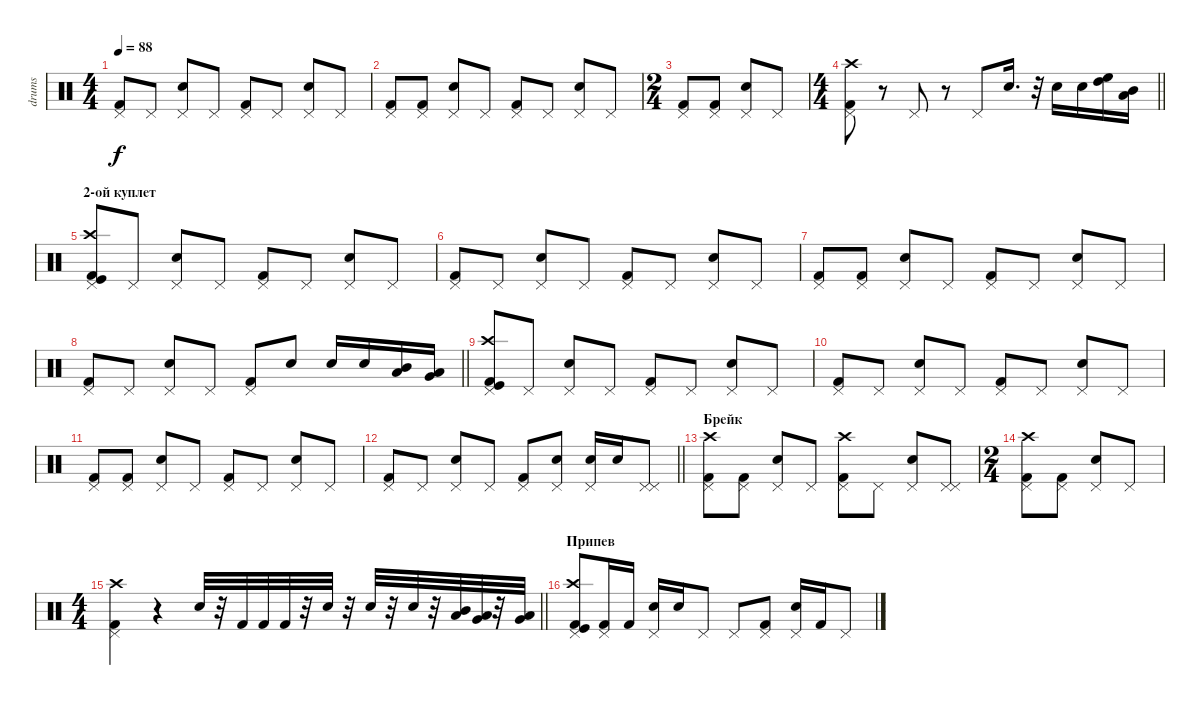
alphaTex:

\track ("drums" "drums") {instrument percussion}
\staff {score}
\articulation defaults
\ts (4 4)
\tempo 88
\clef neutral
\ks c
("Pedal Hi-Hat (hit)" "Kick (hit) 2").8{dy f} "Pedal Hi-Hat (hit)".8 ("Snare (hit) 2" "Pedal Hi-Hat (hit)").8 "Pedal Hi-Hat (hit)".8 ("Pedal Hi-Hat (hit)" "Kick (hit) 2").8 "Pedal Hi-Hat (hit)".8 ("Pedal Hi-Hat (hit)" "Snare (hit) 2").8 "Pedal Hi-Hat (hit)".8 |
("Pedal Hi-Hat (hit)" "Kick (hit) 2").8 ("Kick (hit) 2" "Pedal Hi-Hat (hit)").8 ("Pedal Hi-Hat (hit)" "Snare (hit) 2").8 "Pedal Hi-Hat (hit)".8 ("Kick (hit) 2" "Pedal Hi-Hat (hit)").8 "Pedal Hi-Hat (hit)".8 ("Pedal Hi-Hat (hit)" "Snare (hit) 2").8 "Pedal Hi-Hat (hit)".8 |
\ts (2 4)
("Pedal Hi-Hat (hit)" "Kick (hit) 2").8 ("Kick (hit) 2" "Pedal Hi-Hat (hit)").8 ("Pedal Hi-Hat (hit)" "Snare (hit) 2").8 "Pedal Hi-Hat (hit)".8 |
\ts (4 4)
\barLineRight lightlight
("Pedal Hi-Hat (hit)" "Kick (hit) 2" "Crash high (hit)").8 r.8 "Pedal Hi-Hat (hit)".8 r.8 "Pedal Hi-Hat (hit)".8 "Snare (hit) 2".16{d} r.32 "Snare (hit) 2".16 "Snare (hit) 2".16 ("High Tom (hit)" "High Floor Tom (hit)").16 ("Mid Tom (hit)" "Low Tom (hit)").16 |
\section ("" "2-ой куплет")
("Kick (hit)" "Crash high (hit)" "Kick (hit) 2" "Pedal Hi-Hat (hit)").8 "Pedal Hi-Hat (hit)".8 ("Snare (hit) 2" "Pedal Hi-Hat (hit)").8 "Pedal Hi-Hat (hit)".8 ("Kick (hit) 2" "Pedal Hi-Hat (hit)").8 "Pedal Hi-Hat (hit)".8 ("Pedal Hi-Hat (hit)" "Snare (hit) 2").8 "Pedal Hi-Hat (hit)".8 |
("Pedal Hi-Hat (hit)" "Kick (hit) 2").8 "Pedal Hi-Hat (hit)".8 ("Snare (hit) 2" "Pedal Hi-Hat (hit)").8 "Pedal Hi-Hat (hit)".8 ("Pedal Hi-Hat (hit)" "Kick (hit) 2").8 "Pedal Hi-Hat (hit)".8 ("Pedal Hi-Hat (hit)" "Snare (hit) 2").8 "Pedal Hi-Hat (hit)".8 |
("Pedal Hi-Hat (hit)" "Kick (hit) 2").8 ("Kick (hit) 2" "Pedal Hi-Hat (hit)").8 ("Pedal Hi-Hat (hit)" "Snare (hit) 2").8 "Pedal Hi-Hat (hit)".8 ("Kick (hit) 2" "Pedal Hi-Hat (hit)").8 "Pedal Hi-Hat (hit)".8 ("Pedal Hi-Hat (hit)" "Snare (hit) 2").8 "Pedal Hi-Hat (hit)".8 |
\barLineRight lightlight
("Pedal Hi-Hat (hit)" "Kick (hit) 2").8 "Pedal Hi-Hat (hit)".8 ("Pedal Hi-Hat (hit)" "Snare (hit) 2").8 "Pedal Hi-Hat (hit)".8 ("Pedal Hi-Hat (hit)" "Kick (hit) 2").8 "Snare (hit) 2".8 "Snare (hit) 2".16 "Snare (hit) 2".16 ("Mid Tom (hit)" "Low Tom (hit)").16 ("Very Low Tom (hit)" "Low Floor Tom (hit)").16 |
("Kick (hit)" "Crash high (hit)" "Kick (hit) 2" "Pedal Hi-Hat (hit)").8 "Pedal Hi-Hat (hit)".8 ("Snare (hit) 2" "Pedal Hi-Hat (hit)").8 "Pedal Hi-Hat (hit)".8 ("Kick (hit) 2" "Pedal Hi-Hat (hit)").8 "Pedal Hi-Hat (hit)".8 ("Pedal Hi-Hat (hit)" "Snare (hit) 2").8 "Pedal Hi-Hat (hit)".8 |
("Pedal Hi-Hat (hit)" "Kick (hit) 2").8 "Pedal Hi-Hat (hit)".8 ("Snare (hit) 2" "Pedal Hi-Hat (hit)").8 "Pedal Hi-Hat (hit)".8 ("Pedal Hi-Hat (hit)" "Kick (hit) 2").8 "Pedal Hi-Hat (hit)".8 ("Pedal Hi-Hat (hit)" "Snare (hit) 2").8 "Pedal Hi-Hat (hit)".8 |
("Pedal Hi-Hat (hit)" "Kick (hit) 2").8 ("Kick (hit) 2" "Pedal Hi-Hat (hit)").8 ("Pedal Hi-Hat (hit)" "Snare (hit) 2").8 "Pedal Hi-Hat (hit)".8 ("Kick (hit) 2" "Pedal Hi-Hat (hit)").8 "Pedal Hi-Hat (hit)".8 ("Pedal Hi-Hat (hit)" "Snare (hit) 2").8 "Pedal Hi-Hat (hit)".8 |
\barLineRight lightlight
("Pedal Hi-Hat (hit)" "Kick (hit) 2").8 "Pedal Hi-Hat (hit)".8 ("Pedal Hi-Hat (hit)" "Snare (hit) 2").8 "Pedal Hi-Hat (hit)".8 ("Pedal Hi-Hat (hit)" "Kick (hit) 2").8 ("Pedal Hi-Hat (hit)" "Snare (hit) 2").8 ("Pedal Hi-Hat (hit)" "Snare (hit) 2").16 "Snare (hit) 2".16 ("Pedal Hi-Hat (hit)" "Pedal Hi-Hat (hit)").8 |
\section ("" "Брейк")
("Crash high (hit)" "Pedal Hi-Hat (hit)" "Kick (hit) 2").8 ("Kick (hit) 2" "Pedal Hi-Hat (hit)").8 ("Pedal Hi-Hat (hit)" "Snare (hit) 2").8 "Pedal Hi-Hat (hit)".8 ("Crash high (hit)" "Kick (hit) 2" "Pedal Hi-Hat (hit)").8 "Pedal Hi-Hat (hit)".8 ("Pedal Hi-Hat (hit)" "Snare (hit) 2").8 ("Pedal Hi-Hat (hit)" "Pedal Hi-Hat (hit)").8 |
\ts (2 4)
("Crash high (hit)" "Pedal Hi-Hat (hit)" "Kick (hit) 2").8 ("Kick (hit) 2" "Pedal Hi-Hat (hit)").8 ("Pedal Hi-Hat (hit)" "Snare (hit) 2").8 "Pedal Hi-Hat (hit)".8 |
\ts (4 4)
\barLineRight lightlight
("Crash high (hit)" "Kick (hit) 2" "Pedal Hi-Hat (hit)").4 r.4 "Snare (hit) 2".32 r.32 "Kick (hit) 2".32 "Kick (hit) 2".32 "Kick (hit) 2".32 r.32 "Snare (hit) 2".32 r.32 "Snare (hit) 2".32 r.32 "Snare (hit) 2".32 r.32 ("Low Tom (hit)" "Mid Tom (hit)").32 ("Very Low Tom (hit)" "Low Tom (hit)").32 r.32 ("Very Low Tom (hit)" "Low Tom (hit)").32 |
\section ("" "Припев")
("Kick (hit)" "Crash high (hit)" "Kick (hit) 2" "Pedal Hi-Hat (hit)").8 ("Kick (hit) 2" "Pedal Hi-Hat (hit)").16 "Kick (hit) 2".16 ("Snare (hit) 2" "Pedal Hi-Hat (hit)").16 "Snare (hit) 2".16 "Pedal Hi-Hat (hit)".8 "Pedal Hi-Hat (hit)".8 ("Pedal Hi-Hat (hit)" "Kick (hit) 2").8 ("Pedal Hi-Hat (hit)" "Snare (hit) 2").16 "Kick (hit) 2".16 "Pedal Hi-Hat (hit)".8
